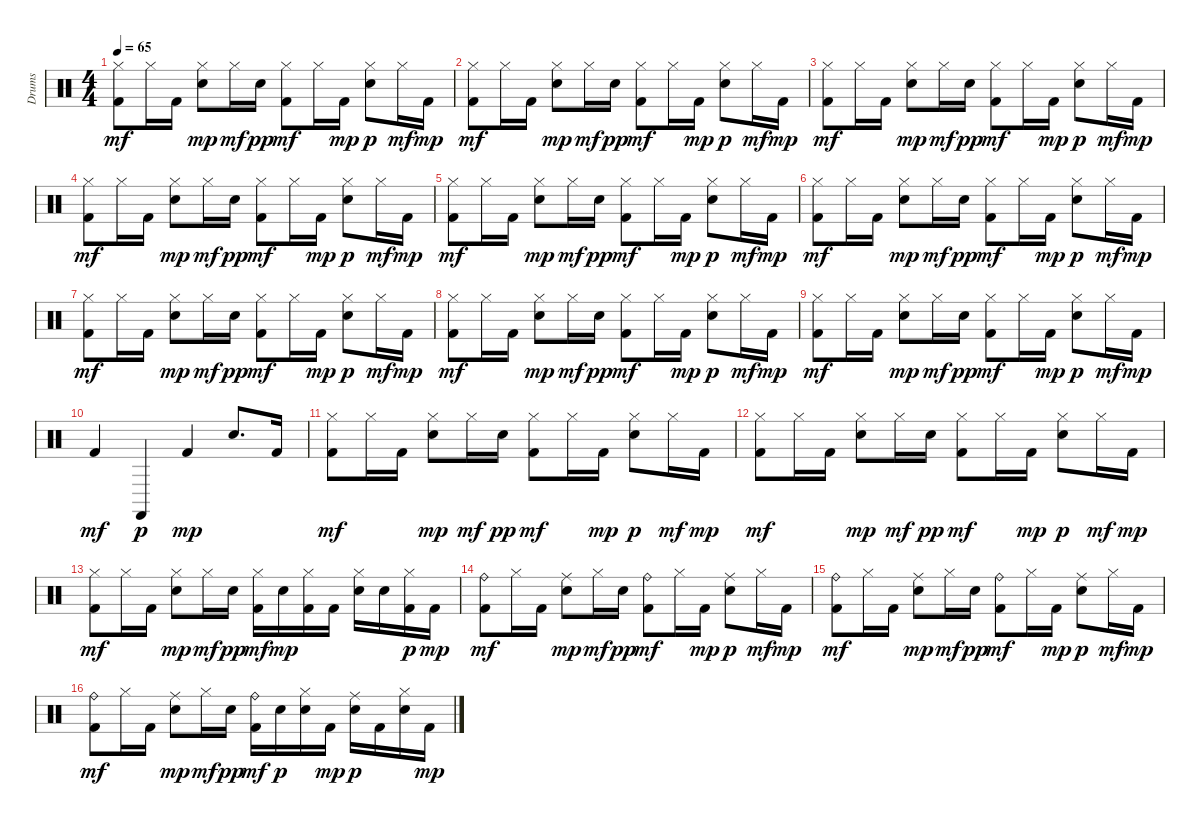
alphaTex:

\track ("Drums" "Drums") {instrument percussion}
\staff {score}
\articulation defaults
\ts (4 4)
\tempo 65
\clef neutral
\ks c
("Hi-Hat (closed)" "Kick (hit) 2").8{dy mf} "Hi-Hat (closed)".16 "Kick (hit) 2".16 ("Hi-Hat (closed)" "Electric Snare (hit)").8{dy mp} "Hi-Hat (closed)".16{dy mf} "Electric Snare (hit)".16{dy pp} ("Hi-Hat (closed)" "Kick (hit) 2").8{dy mf} "Hi-Hat (closed)".16 "Kick (hit) 2".16{dy mp} ("Hi-Hat (closed)" "Electric Snare (hit)").8{dy p} "Hi-Hat (closed)".16{dy mf} "Kick (hit) 2".16{dy mp} |
("Hi-Hat (closed)" "Kick (hit) 2").8{dy mf} "Hi-Hat (closed)".16 "Kick (hit) 2".16 ("Hi-Hat (closed)" "Electric Snare (hit)").8{dy mp} "Hi-Hat (closed)".16{dy mf} "Electric Snare (hit)".16{dy pp} ("Hi-Hat (closed)" "Kick (hit) 2").8{dy mf} "Hi-Hat (closed)".16 "Kick (hit) 2".16{dy mp} ("Hi-Hat (closed)" "Electric Snare (hit)").8{dy p} "Hi-Hat (closed)".16{dy mf} "Kick (hit) 2".16{dy mp} |
("Hi-Hat (closed)" "Kick (hit) 2").8{dy mf} "Hi-Hat (closed)".16 "Kick (hit) 2".16 ("Hi-Hat (closed)" "Electric Snare (hit)").8{dy mp} "Hi-Hat (closed)".16{dy mf} "Electric Snare (hit)".16{dy pp} ("Hi-Hat (closed)" "Kick (hit) 2").8{dy mf} "Hi-Hat (closed)".16 "Kick (hit) 2".16{dy mp} ("Hi-Hat (closed)" "Electric Snare (hit)").8{dy p} "Hi-Hat (closed)".16{dy mf} "Kick (hit) 2".16{dy mp} |
("Hi-Hat (closed)" "Kick (hit) 2").8{dy mf} "Hi-Hat (closed)".16 "Kick (hit) 2".16 ("Hi-Hat (closed)" "Electric Snare (hit)").8{dy mp} "Hi-Hat (closed)".16{dy mf} "Electric Snare (hit)".16{dy pp} ("Hi-Hat (closed)" "Kick (hit) 2").8{dy mf} "Hi-Hat (closed)".16 "Kick (hit) 2".16{dy mp} ("Hi-Hat (closed)" "Electric Snare (hit)").8{dy p} "Hi-Hat (closed)".16{dy mf} "Kick (hit) 2".16{dy mp} |
("Hi-Hat (closed)" "Kick (hit) 2").8{dy mf} "Hi-Hat (closed)".16 "Kick (hit) 2".16 ("Hi-Hat (closed)" "Electric Snare (hit)").8{dy mp} "Hi-Hat (closed)".16{dy mf} "Electric Snare (hit)".16{dy pp} ("Hi-Hat (closed)" "Kick (hit) 2").8{dy mf} "Hi-Hat (closed)".16 "Kick (hit) 2".16{dy mp} ("Hi-Hat (closed)" "Electric Snare (hit)").8{dy p} "Hi-Hat (closed)".16{dy mf} "Kick (hit) 2".16{dy mp} |
("Hi-Hat (closed)" "Kick (hit) 2").8{dy mf} "Hi-Hat (closed)".16 "Kick (hit) 2".16 ("Hi-Hat (closed)" "Electric Snare (hit)").8{dy mp} "Hi-Hat (closed)".16{dy mf} "Electric Snare (hit)".16{dy pp} ("Hi-Hat (closed)" "Kick (hit) 2").8{dy mf} "Hi-Hat (closed)".16 "Kick (hit) 2".16{dy mp} ("Hi-Hat (closed)" "Electric Snare (hit)").8{dy p} "Hi-Hat (closed)".16{dy mf} "Kick (hit) 2".16{dy mp} |
("Hi-Hat (closed)" "Kick (hit) 2").8{dy mf} "Hi-Hat (closed)".16 "Kick (hit) 2".16 ("Hi-Hat (closed)" "Electric Snare (hit)").8{dy mp} "Hi-Hat (closed)".16{dy mf} "Electric Snare (hit)".16{dy pp} ("Hi-Hat (closed)" "Kick (hit) 2").8{dy mf} "Hi-Hat (closed)".16 "Kick (hit) 2".16{dy mp} ("Hi-Hat (closed)" "Electric Snare (hit)").8{dy p} "Hi-Hat (closed)".16{dy mf} "Kick (hit) 2".16{dy mp} |
("Hi-Hat (closed)" "Kick (hit) 2").8{dy mf} "Hi-Hat (closed)".16 "Kick (hit) 2".16 ("Hi-Hat (closed)" "Electric Snare (hit)").8{dy mp} "Hi-Hat (closed)".16{dy mf} "Electric Snare (hit)".16{dy pp} ("Hi-Hat (closed)" "Kick (hit) 2").8{dy mf} "Hi-Hat (closed)".16 "Kick (hit) 2".16{dy mp} ("Hi-Hat (closed)" "Electric Snare (hit)").8{dy p} "Hi-Hat (closed)".16{dy mf} "Kick (hit) 2".16{dy mp} |
("Hi-Hat (closed)" "Kick (hit) 2").8{dy mf} "Hi-Hat (closed)".16 "Kick (hit) 2".16 ("Hi-Hat (closed)" "Electric Snare (hit)").8{dy mp} "Hi-Hat (closed)".16{dy mf} "Electric Snare (hit)".16{dy pp} ("Hi-Hat (closed)" "Kick (hit) 2").8{dy mf} "Hi-Hat (closed)".16 "Kick (hit) 2".16{dy mp} ("Hi-Hat (closed)" "Electric Snare (hit)").8{dy p} "Hi-Hat (closed)".16{dy mf} "Kick (hit) 2".16{dy mp} |
"Kick (hit) 2".4{dy mf} "Castanets (hit)".4{dy p} "Kick (hit) 2".4{dy mp} "Electric Snare (hit)".8{d} "Kick (hit) 2".16 |
("Hi-Hat (closed)" "Kick (hit) 2").8{dy mf} "Hi-Hat (closed)".16 "Kick (hit) 2".16 ("Hi-Hat (closed)" "Electric Snare (hit)").8{dy mp} "Hi-Hat (closed)".16{dy mf} "Electric Snare (hit)".16{dy pp} ("Hi-Hat (closed)" "Kick (hit) 2").8{dy mf} "Hi-Hat (closed)".16 "Kick (hit) 2".16{dy mp} ("Hi-Hat (closed)" "Electric Snare (hit)").8{dy p} "Hi-Hat (closed)".16{dy mf} "Kick (hit) 2".16{dy mp} |
("Hi-Hat (closed)" "Kick (hit) 2").8{dy mf} "Hi-Hat (closed)".16 "Kick (hit) 2".16 ("Hi-Hat (closed)" "Electric Snare (hit)").8{dy mp} "Hi-Hat (closed)".16{dy mf} "Electric Snare (hit)".16{dy pp} ("Hi-Hat (closed)" "Kick (hit) 2").8{dy mf} "Hi-Hat (closed)".16 "Kick (hit) 2".16{dy mp} ("Hi-Hat (closed)" "Electric Snare (hit)").8{dy p} "Hi-Hat (closed)".16{dy mf} "Kick (hit) 2".16{dy mp} |
("Hi-Hat (closed)" "Kick (hit) 2").8{dy mf} "Hi-Hat (closed)".16 "Kick (hit) 2".16 ("Hi-Hat (closed)" "Electric Snare (hit)").8{dy mp} "Hi-Hat (closed)".16{dy mf} "Electric Snare (hit)".16{dy pp} ("Hi-Hat (closed)" "Kick (hit) 2").16{dy mf} "Electric Snare (hit)".16{dy mp} ("Hi-Hat (closed)" "Kick (hit) 2").16 "Kick (hit) 2".16 ("Hi-Hat (closed)" "Electric Snare (hit)").16 "Electric Snare (hit)".16 ("Hi-Hat (closed)" "Kick (hit) 2").16{dy p} "Kick (hit) 2".16{dy mp} |
("Ride (bell)" "Kick (hit) 2").8{dy mf} "Hi-Hat (closed)".16 "Kick (hit) 2".16 ("Ride (middle)" "Electric Snare (hit)").8{dy mp} "Hi-Hat (closed)".16{dy mf} "Electric Snare (hit)".16{dy pp} ("Ride (bell)" "Kick (hit) 2").8{dy mf} "Hi-Hat (closed)".16 "Kick (hit) 2".16{dy mp} ("Ride (middle)" "Electric Snare (hit)").8{dy p} "Hi-Hat (closed)".16{dy mf} "Kick (hit) 2".16{dy mp} |
("Ride (bell)" "Kick (hit) 2").8{dy mf} "Hi-Hat (closed)".16 "Kick (hit) 2".16 ("Ride (middle)" "Electric Snare (hit)").8{dy mp} "Hi-Hat (closed)".16{dy mf} "Electric Snare (hit)".16{dy pp} ("Ride (bell)" "Kick (hit) 2").8{dy mf} "Hi-Hat (closed)".16 "Kick (hit) 2".16{dy mp} ("Ride (middle)" "Electric Snare (hit)").8{dy p} "Hi-Hat (closed)".16{dy mf} "Kick (hit) 2".16{dy mp} |
("Ride (bell)" "Kick (hit) 2").8{dy mf} "Hi-Hat (closed)".16 "Kick (hit) 2".16 ("Ride (middle)" "Electric Snare (hit)").8{dy mp} "Hi-Hat (closed)".16{dy mf} "Electric Snare (hit)".16{dy pp} ("Ride (bell)" "Kick (hit) 2").16{dy mf} "Electric Snare (hit)".16{dy p} ("Hi-Hat (closed)" "Electric Snare (hit)").16 "Kick (hit) 2".16{dy mp} ("Ride (middle)" "Electric Snare (hit)").16{dy p} "Kick (hit) 2".16 ("Hi-Hat (closed)" "Electric Snare (hit)").16 "Kick (hit) 2".16{dy mp}
